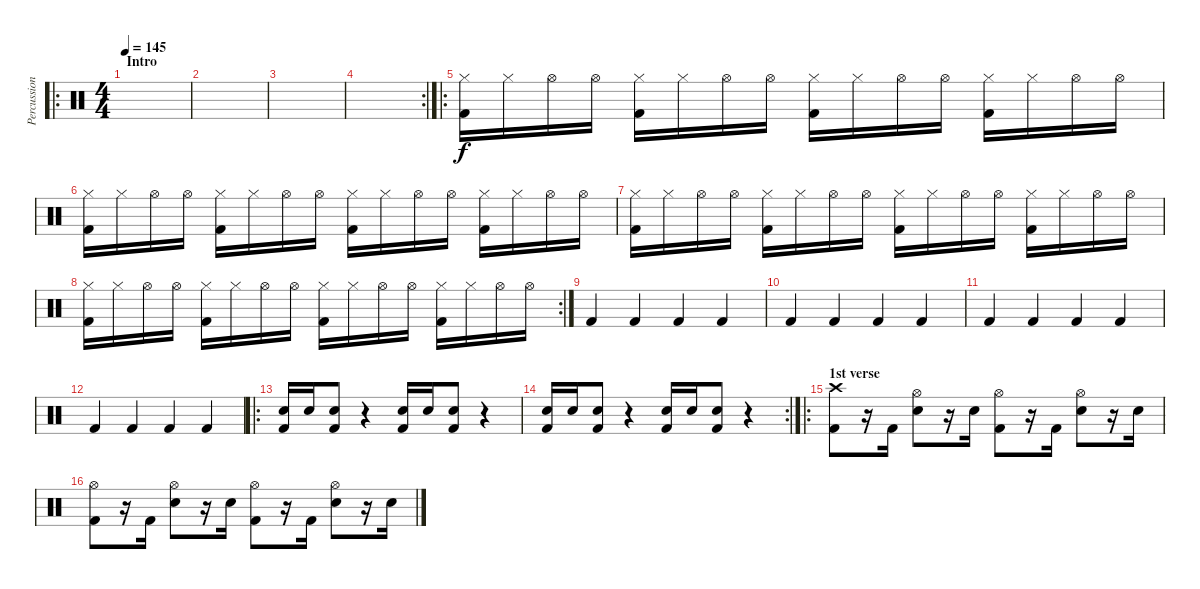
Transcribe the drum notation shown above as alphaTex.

\track ("Percussion" "Percussion") {instrument percussion}
\staff {score}
\articulation defaults
\ro
\ts (4 4)
\section ("" "Intro")
\tempo 145
\clef neutral
\ks c
|
|
|
\rc 2
|
\ro
("Kick (hit) 2" "Hi-Hat (closed)").16 "Hi-Hat (closed)".16 "Hi-Hat (open)".16 "Hi-Hat (open)".16 ("Kick (hit) 2" "Hi-Hat (closed)").16 "Hi-Hat (closed)".16 "Hi-Hat (open)".16 "Hi-Hat (open)".16 ("Kick (hit) 2" "Hi-Hat (closed)").16 "Hi-Hat (closed)".16 "Hi-Hat (open)".16 "Hi-Hat (open)".16 ("Kick (hit) 2" "Hi-Hat (closed)").16 "Hi-Hat (closed)".16 "Hi-Hat (open)".16 "Hi-Hat (open)".16 |
("Kick (hit) 2" "Hi-Hat (closed)").16 "Hi-Hat (closed)".16 "Hi-Hat (open)".16 "Hi-Hat (open)".16 ("Kick (hit) 2" "Hi-Hat (closed)").16 "Hi-Hat (closed)".16 "Hi-Hat (open)".16 "Hi-Hat (open)".16 ("Kick (hit) 2" "Hi-Hat (closed)").16 "Hi-Hat (closed)".16 "Hi-Hat (open)".16 "Hi-Hat (open)".16 ("Kick (hit) 2" "Hi-Hat (closed)").16 "Hi-Hat (closed)".16 "Hi-Hat (open)".16 "Hi-Hat (open)".16 |
("Kick (hit) 2" "Hi-Hat (closed)").16 "Hi-Hat (closed)".16 "Hi-Hat (open)".16 "Hi-Hat (open)".16 ("Kick (hit) 2" "Hi-Hat (closed)").16 "Hi-Hat (closed)".16 "Hi-Hat (open)".16 "Hi-Hat (open)".16 ("Kick (hit) 2" "Hi-Hat (closed)").16 "Hi-Hat (closed)".16 "Hi-Hat (open)".16 "Hi-Hat (open)".16 ("Kick (hit) 2" "Hi-Hat (closed)").16 "Hi-Hat (closed)".16 "Hi-Hat (open)".16 "Hi-Hat (open)".16 |
\rc 2
("Kick (hit) 2" "Hi-Hat (closed)").16 "Hi-Hat (closed)".16 "Hi-Hat (open)".16 "Hi-Hat (open)".16 ("Kick (hit) 2" "Hi-Hat (closed)").16 "Hi-Hat (closed)".16 "Hi-Hat (open)".16 "Hi-Hat (open)".16 ("Kick (hit) 2" "Hi-Hat (closed)").16 "Hi-Hat (closed)".16 "Hi-Hat (open)".16 "Hi-Hat (open)".16 ("Kick (hit) 2" "Hi-Hat (closed)").16 "Hi-Hat (closed)".16 "Hi-Hat (open)".16 "Hi-Hat (open)".16 |
"Kick (hit) 2".4 "Kick (hit) 2".4 "Kick (hit) 2".4 "Kick (hit) 2".4 |
"Kick (hit) 2".4 "Kick (hit) 2".4 "Kick (hit) 2".4 "Kick (hit) 2".4 |
"Kick (hit) 2".4 "Kick (hit) 2".4 "Kick (hit) 2".4 "Kick (hit) 2".4 |
"Kick (hit) 2".4 "Kick (hit) 2".4 "Kick (hit) 2".4 "Kick (hit) 2".4 |
\ro
("Electric Snare (hit)" "Kick (hit) 2").16 "Electric Snare (hit)".16 ("Electric Snare (hit)" "Kick (hit) 2").8 r.4 ("Electric Snare (hit)" "Kick (hit) 2").16 "Electric Snare (hit)".16 ("Electric Snare (hit)" "Kick (hit) 2").8 r.4 |
\rc 2
("Electric Snare (hit)" "Kick (hit) 2").16 "Electric Snare (hit)".16 ("Electric Snare (hit)" "Kick (hit) 2").8 r.4 ("Electric Snare (hit)" "Kick (hit) 2").16 "Electric Snare (hit)".16 ("Electric Snare (hit)" "Kick (hit) 2").8 r.4 |
\ro
\section ("" "1st verse")
("Crash high (hit)" "Kick (hit) 2").8 r.16 "Kick (hit) 2".16 ("Electric Snare (hit)" "Hi-Hat (open)").8 r.16 "Electric Snare (hit)".16 ("Kick (hit) 2" "Hi-Hat (open)").8 r.16 "Kick (hit) 2".16 ("Hi-Hat (open)" "Electric Snare (hit)").8 r.16 "Electric Snare (hit)".16 |
("Hi-Hat (open)" "Kick (hit) 2").8 r.16 "Kick (hit) 2".16 ("Electric Snare (hit)" "Hi-Hat (open)").8 r.16 "Electric Snare (hit)".16 ("Kick (hit) 2" "Hi-Hat (open)").8 r.16 "Kick (hit) 2".16 ("Hi-Hat (open)" "Electric Snare (hit)").8 r.16 "Electric Snare (hit)".16
